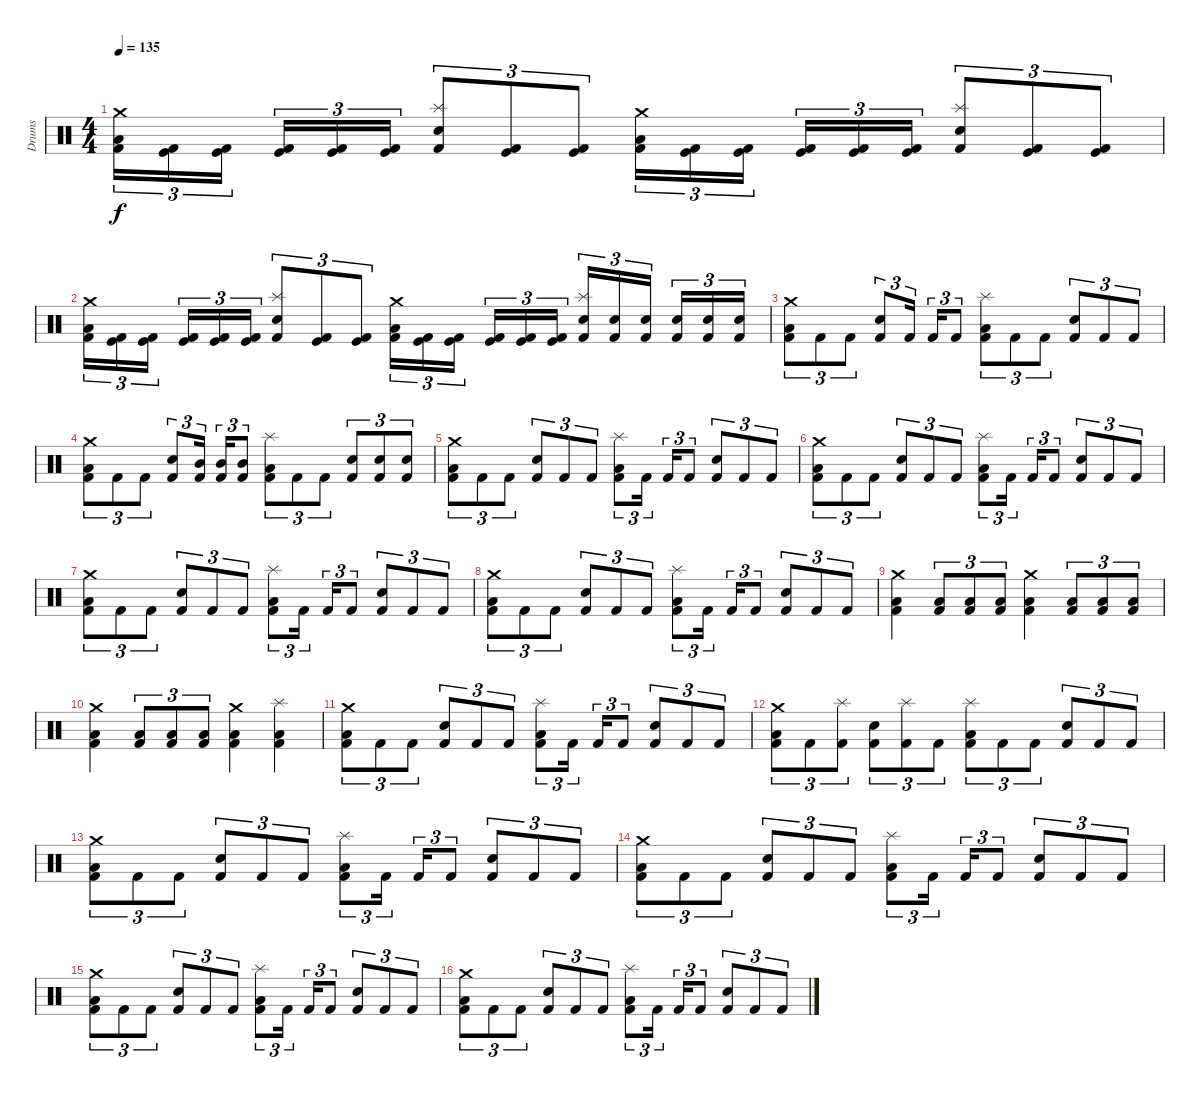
\track ("Drums" "Drums") {instrument percussion}
\staff {score}
\articulation defaults
\ts (4 4)
\tempo 135
\clef neutral
\ks c
("Crash medium (hit)" "Low Floor Tom (hit)" "Kick (hit) 2").16{tu (3 2) dy f} ("Kick (hit)" "Kick (hit) 2").16{tu (3 2)} ("Kick (hit)" "Kick (hit) 2").16{tu (3 2)} ("Kick (hit)" "Kick (hit) 2").16{tu (3 2)} ("Kick (hit)" "Kick (hit) 2").16{tu (3 2)} ("Kick (hit)" "Kick (hit) 2").16{tu (3 2)} ("Splash (hit)" "Snare (hit) 2" "Kick (hit) 2").8{tu (3 2)} ("Kick (hit)" "Kick (hit) 2").8{tu (3 2)} ("Kick (hit)" "Kick (hit) 2").8{tu (3 2)} ("Crash medium (hit)" "Low Floor Tom (hit)" "Kick (hit) 2").16{tu (3 2)} ("Kick (hit)" "Kick (hit) 2").16{tu (3 2)} ("Kick (hit)" "Kick (hit) 2").16{tu (3 2)} ("Kick (hit)" "Kick (hit) 2").16{tu (3 2)} ("Kick (hit)" "Kick (hit) 2").16{tu (3 2)} ("Kick (hit)" "Kick (hit) 2").16{tu (3 2)} ("Splash (hit)" "Snare (hit) 2" "Kick (hit) 2").8{tu (3 2)} ("Kick (hit)" "Kick (hit) 2").8{tu (3 2)} ("Kick (hit)" "Kick (hit) 2").8{tu (3 2)} |
("Crash medium (hit)" "Low Floor Tom (hit)" "Kick (hit) 2").16{tu (3 2)} ("Kick (hit)" "Kick (hit) 2").16{tu (3 2)} ("Kick (hit)" "Kick (hit) 2").16{tu (3 2)} ("Kick (hit)" "Kick (hit) 2").16{tu (3 2)} ("Kick (hit)" "Kick (hit) 2").16{tu (3 2)} ("Kick (hit)" "Kick (hit) 2").16{tu (3 2)} ("Splash (hit)" "Snare (hit) 2" "Kick (hit) 2").8{tu (3 2)} ("Kick (hit)" "Kick (hit) 2").8{tu (3 2)} ("Kick (hit)" "Kick (hit) 2").8{tu (3 2)} ("Crash medium (hit)" "Low Floor Tom (hit)" "Kick (hit) 2").16{tu (3 2)} ("Kick (hit)" "Kick (hit) 2").16{tu (3 2)} ("Kick (hit)" "Kick (hit) 2").16{tu (3 2)} ("Kick (hit)" "Kick (hit) 2").16{tu (3 2)} ("Kick (hit)" "Kick (hit) 2").16{tu (3 2)} ("Kick (hit)" "Kick (hit) 2").16{tu (3 2)} ("Splash (hit)" "Snare (hit) 2" "Kick (hit) 2").16{tu (3 2)} ("Snare (hit) 2" "Kick (hit) 2").16{tu (3 2)} ("Snare (hit) 2" "Kick (hit) 2").16{tu (3 2)} ("Electric Snare (hit)" "Kick (hit) 2").16{tu (3 2)} ("Electric Snare (hit)" "Kick (hit) 2").16{tu (3 2)} ("Electric Snare (hit)" "Kick (hit) 2").16{tu (3 2)} |
("Crash medium (hit)" "Low Floor Tom (hit)" "Kick (hit) 2").8{tu (3 2)} "Kick (hit) 2".8{tu (3 2)} "Kick (hit) 2".8{tu (3 2)} ("Snare (hit) 2" "Kick (hit) 2").8{tu (3 2)} "Kick (hit) 2".16{tu (3 2)} "Kick (hit) 2".16{tu (3 2)} "Kick (hit) 2".8{tu (3 2)} ("Splash (hit)" "Low Floor Tom (hit)" "Kick (hit) 2").8{tu (3 2)} "Kick (hit) 2".8{tu (3 2)} "Kick (hit) 2".8{tu (3 2)} ("Snare (hit) 2" "Kick (hit) 2").8{tu (3 2)} "Kick (hit) 2".8{tu (3 2)} "Kick (hit) 2".8{tu (3 2)} |
("Crash medium (hit)" "Low Floor Tom (hit)" "Kick (hit) 2").8{tu (3 2)} "Kick (hit) 2".8{tu (3 2)} "Kick (hit) 2".8{tu (3 2)} ("Snare (hit) 2" "Kick (hit) 2").8{tu (3 2)} ("Mid Tom (hit)" "Kick (hit) 2").16{tu (3 2)} ("Mid Tom (hit)" "Kick (hit) 2").16{tu (3 2)} ("Mid Tom (hit)" "Kick (hit) 2").8{tu (3 2)} ("Splash (hit)" "Low Floor Tom (hit)" "Kick (hit) 2").8{tu (3 2)} "Kick (hit) 2".8{tu (3 2)} "Kick (hit) 2".8{tu (3 2)} ("Snare (hit) 2" "Kick (hit) 2").8{tu (3 2)} ("Snare (hit) 2" "Kick (hit) 2").8{tu (3 2)} ("Snare (hit) 2" "Kick (hit) 2").8{tu (3 2)} |
("Crash medium (hit)" "Low Floor Tom (hit)" "Kick (hit) 2").8{tu (3 2)} "Kick (hit) 2".8{tu (3 2)} "Kick (hit) 2".8{tu (3 2)} ("Snare (hit) 2" "Kick (hit) 2").8{tu (3 2)} "Kick (hit) 2".8{tu (3 2)} "Kick (hit) 2".8{tu (3 2)} ("Splash (hit)" "Low Floor Tom (hit)" "Kick (hit) 2").8{tu (3 2)} "Kick (hit) 2".16{tu (3 2)} "Kick (hit) 2".16{tu (3 2)} "Kick (hit) 2".8{tu (3 2)} ("Snare (hit) 2" "Kick (hit) 2").8{tu (3 2)} "Kick (hit) 2".8{tu (3 2)} "Kick (hit) 2".8{tu (3 2)} |
("Crash medium (hit)" "Low Floor Tom (hit)" "Kick (hit) 2").8{tu (3 2)} "Kick (hit) 2".8{tu (3 2)} "Kick (hit) 2".8{tu (3 2)} ("Snare (hit) 2" "Kick (hit) 2").8{tu (3 2)} "Kick (hit) 2".8{tu (3 2)} "Kick (hit) 2".8{tu (3 2)} ("Splash (hit)" "Low Floor Tom (hit)" "Kick (hit) 2").8{tu (3 2)} "Kick (hit) 2".16{tu (3 2)} "Kick (hit) 2".16{tu (3 2)} "Kick (hit) 2".8{tu (3 2)} ("Snare (hit) 2" "Kick (hit) 2").8{tu (3 2)} "Kick (hit) 2".8{tu (3 2)} "Kick (hit) 2".8{tu (3 2)} |
("Crash medium (hit)" "Low Floor Tom (hit)" "Kick (hit) 2").8{tu (3 2)} "Kick (hit) 2".8{tu (3 2)} "Kick (hit) 2".8{tu (3 2)} ("Snare (hit) 2" "Kick (hit) 2").8{tu (3 2)} "Kick (hit) 2".8{tu (3 2)} "Kick (hit) 2".8{tu (3 2)} ("Splash (hit)" "Low Floor Tom (hit)" "Kick (hit) 2").8{tu (3 2)} "Kick (hit) 2".16{tu (3 2)} "Kick (hit) 2".16{tu (3 2)} "Kick (hit) 2".8{tu (3 2)} ("Snare (hit) 2" "Kick (hit) 2").8{tu (3 2)} "Kick (hit) 2".8{tu (3 2)} "Kick (hit) 2".8{tu (3 2)} |
("Crash medium (hit)" "Low Floor Tom (hit)" "Kick (hit) 2").8{tu (3 2)} "Kick (hit) 2".8{tu (3 2)} "Kick (hit) 2".8{tu (3 2)} ("Snare (hit) 2" "Kick (hit) 2").8{tu (3 2)} "Kick (hit) 2".8{tu (3 2)} "Kick (hit) 2".8{tu (3 2)} ("Splash (hit)" "Low Floor Tom (hit)" "Kick (hit) 2").8{tu (3 2)} "Kick (hit) 2".16{tu (3 2)} "Kick (hit) 2".16{tu (3 2)} "Kick (hit) 2".8{tu (3 2)} ("Snare (hit) 2" "Kick (hit) 2").8{tu (3 2)} "Kick (hit) 2".8{tu (3 2)} "Kick (hit) 2".8{tu (3 2)} |
("Crash medium (hit)" "Low Floor Tom (hit)" "Kick (hit) 2").4 ("Low Floor Tom (hit)" "Kick (hit) 2").8{tu (3 2)} ("Low Floor Tom (hit)" "Kick (hit) 2").8{tu (3 2)} ("Low Floor Tom (hit)" "Kick (hit) 2").8{tu (3 2)} ("Crash medium (hit)" "Low Floor Tom (hit)" "Kick (hit) 2").4 ("Low Floor Tom (hit)" "Kick (hit) 2").8{tu (3 2)} ("Low Floor Tom (hit)" "Kick (hit) 2").8{tu (3 2)} ("Low Floor Tom (hit)" "Kick (hit) 2").8{tu (3 2)} |
("Crash medium (hit)" "Low Floor Tom (hit)" "Kick (hit) 2").4 ("Low Floor Tom (hit)" "Kick (hit) 2").8{tu (3 2)} ("Low Floor Tom (hit)" "Kick (hit) 2").8{tu (3 2)} ("Low Floor Tom (hit)" "Kick (hit) 2").8{tu (3 2)} ("Crash medium (hit)" "Low Floor Tom (hit)" "Kick (hit) 2").4 ("Splash (hit)" "Low Floor Tom (hit)" "Kick (hit) 2").4 |
("Crash medium (hit)" "Low Floor Tom (hit)" "Kick (hit) 2").8{tu (3 2)} "Kick (hit) 2".8{tu (3 2)} "Kick (hit) 2".8{tu (3 2)} ("Snare (hit) 2" "Kick (hit) 2").8{tu (3 2)} "Kick (hit) 2".8{tu (3 2)} "Kick (hit) 2".8{tu (3 2)} ("Splash (hit)" "Low Floor Tom (hit)" "Kick (hit) 2").8{tu (3 2)} "Kick (hit) 2".16{tu (3 2)} "Kick (hit) 2".16{tu (3 2)} "Kick (hit) 2".8{tu (3 2)} ("Snare (hit) 2" "Kick (hit) 2").8{tu (3 2)} "Kick (hit) 2".8{tu (3 2)} "Kick (hit) 2".8{tu (3 2)} |
("Crash medium (hit)" "Low Floor Tom (hit)" "Kick (hit) 2").8{tu (3 2)} "Kick (hit) 2".8{tu (3 2)} ("Splash (hit)" "Kick (hit) 2").8{tu (3 2)} ("Snare (hit) 2" "Kick (hit) 2").8{tu (3 2)} ("Splash (hit)" "Kick (hit) 2").8{tu (3 2)} "Kick (hit) 2".8{tu (3 2)} ("Splash (hit)" "Low Floor Tom (hit)" "Kick (hit) 2").8{tu (3 2)} "Kick (hit) 2".8{tu (3 2)} "Kick (hit) 2".8{tu (3 2)} ("Snare (hit) 2" "Kick (hit) 2").8{tu (3 2)} "Kick (hit) 2".8{tu (3 2)} "Kick (hit) 2".8{tu (3 2)} |
("Crash medium (hit)" "Low Floor Tom (hit)" "Kick (hit) 2").8{tu (3 2)} "Kick (hit) 2".8{tu (3 2)} "Kick (hit) 2".8{tu (3 2)} ("Snare (hit) 2" "Kick (hit) 2").8{tu (3 2)} "Kick (hit) 2".8{tu (3 2)} "Kick (hit) 2".8{tu (3 2)} ("Splash (hit)" "Low Floor Tom (hit)" "Kick (hit) 2").8{tu (3 2)} "Kick (hit) 2".16{tu (3 2)} "Kick (hit) 2".16{tu (3 2)} "Kick (hit) 2".8{tu (3 2)} ("Snare (hit) 2" "Kick (hit) 2").8{tu (3 2)} "Kick (hit) 2".8{tu (3 2)} "Kick (hit) 2".8{tu (3 2)} |
("Crash medium (hit)" "Low Floor Tom (hit)" "Kick (hit) 2").8{tu (3 2)} "Kick (hit) 2".8{tu (3 2)} "Kick (hit) 2".8{tu (3 2)} ("Snare (hit) 2" "Kick (hit) 2").8{tu (3 2)} "Kick (hit) 2".8{tu (3 2)} "Kick (hit) 2".8{tu (3 2)} ("Splash (hit)" "Low Floor Tom (hit)" "Kick (hit) 2").8{tu (3 2)} "Kick (hit) 2".16{tu (3 2)} "Kick (hit) 2".16{tu (3 2)} "Kick (hit) 2".8{tu (3 2)} ("Snare (hit) 2" "Kick (hit) 2").8{tu (3 2)} "Kick (hit) 2".8{tu (3 2)} "Kick (hit) 2".8{tu (3 2)} |
("Crash medium (hit)" "Low Floor Tom (hit)" "Kick (hit) 2").8{tu (3 2)} "Kick (hit) 2".8{tu (3 2)} "Kick (hit) 2".8{tu (3 2)} ("Snare (hit) 2" "Kick (hit) 2").8{tu (3 2)} "Kick (hit) 2".8{tu (3 2)} "Kick (hit) 2".8{tu (3 2)} ("Splash (hit)" "Low Floor Tom (hit)" "Kick (hit) 2").8{tu (3 2)} "Kick (hit) 2".16{tu (3 2)} "Kick (hit) 2".16{tu (3 2)} "Kick (hit) 2".8{tu (3 2)} ("Snare (hit) 2" "Kick (hit) 2").8{tu (3 2)} "Kick (hit) 2".8{tu (3 2)} "Kick (hit) 2".8{tu (3 2)} |
("Crash medium (hit)" "Low Floor Tom (hit)" "Kick (hit) 2").8{tu (3 2)} "Kick (hit) 2".8{tu (3 2)} "Kick (hit) 2".8{tu (3 2)} ("Snare (hit) 2" "Kick (hit) 2").8{tu (3 2)} "Kick (hit) 2".8{tu (3 2)} "Kick (hit) 2".8{tu (3 2)} ("Splash (hit)" "Low Floor Tom (hit)" "Kick (hit) 2").8{tu (3 2)} "Kick (hit) 2".16{tu (3 2)} "Kick (hit) 2".16{tu (3 2)} "Kick (hit) 2".8{tu (3 2)} ("Snare (hit) 2" "Kick (hit) 2").8{tu (3 2)} "Kick (hit) 2".8{tu (3 2)} "Kick (hit) 2".8{tu (3 2)}
